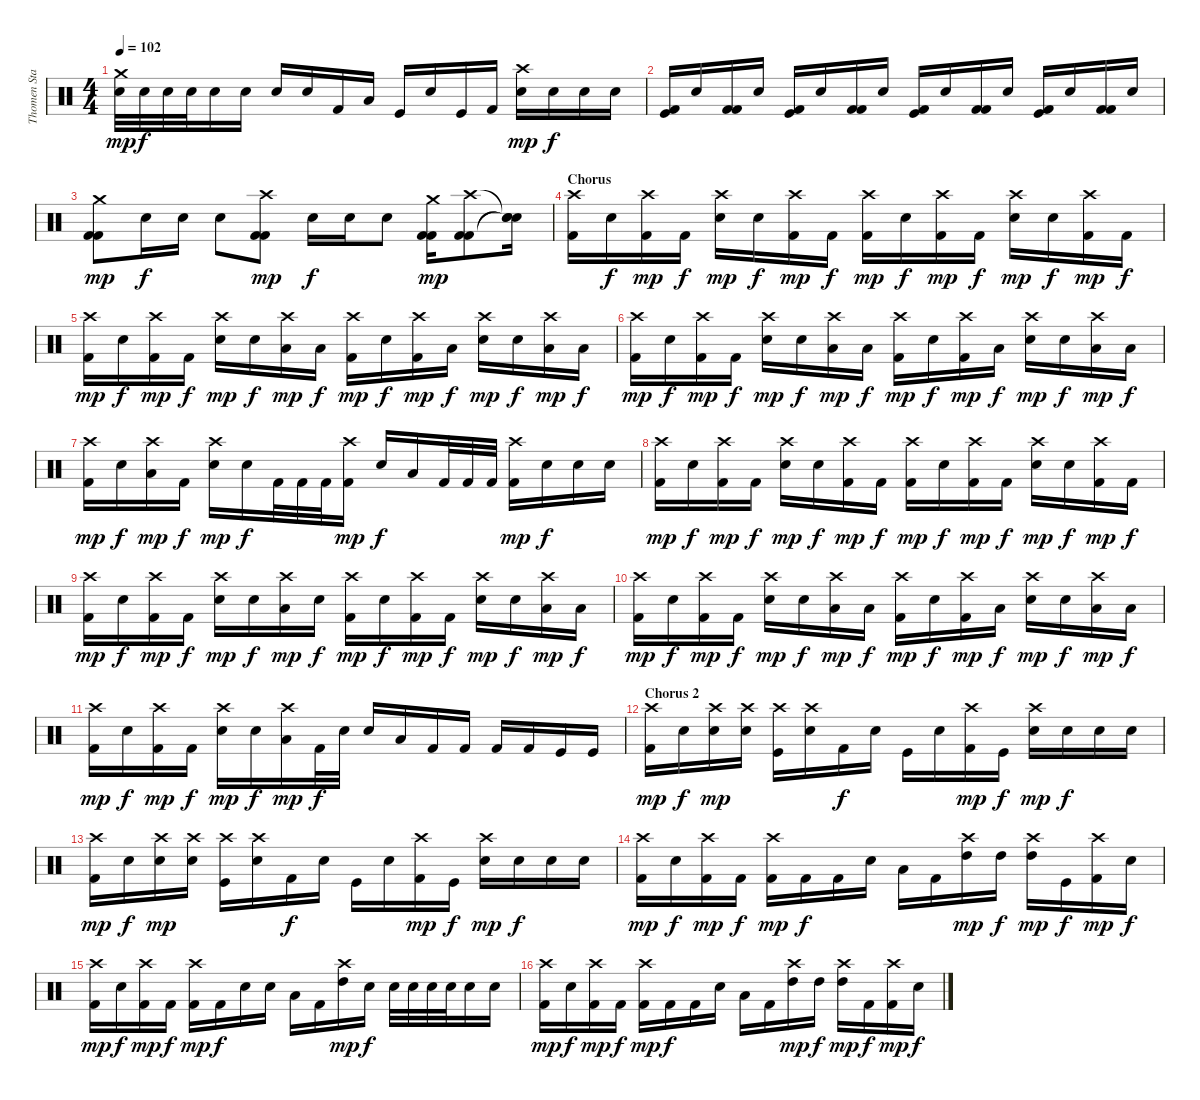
\track ("Thomen Stauch" "Thomen Sta") {instrument percussion}
\staff {score}
\articulation defaults
\ts (4 4)
\tempo 102
\clef neutral
\ks c
("Crash medium (hit)" "Snare (hit) 2").32{dy mp} "Snare (hit) 2".32{dy f} "Snare (hit) 2".32 "Snare (hit) 2".32 "Snare (hit) 2".16 "Snare (hit) 2"{x}.16 "Snare (hit) 2"{x}.16 "Snare (hit)"{x}.16 "Kick (hit) 2".16 "Low Floor Tom (hit)"{x}.16 "Kick (hit)".16 "Snare (hit)"{x}.16 "Kick (hit)".16 "Kick (hit) 2".16 ("Crash high (hit)" "Snare (hit) 2").16{dy mp} "Snare (hit)"{x}.16{dy f} "Snare (hit)"{x}.16 "Snare (hit)"{x}.16 |
("Kick (hit)" "Kick (hit) 2").16 "Snare (hit)"{x}.16 ("Kick (hit) 2" "Kick (hit) 2").16 "Snare (hit)"{x}.16 ("Kick (hit)" "Kick (hit) 2").16 "Snare (hit)"{x}.16 ("Kick (hit) 2" "Kick (hit) 2").16 "Snare (hit)"{x}.16 ("Kick (hit)" "Kick (hit) 2").16 "Snare (hit)"{x}.16 ("Kick (hit) 2" "Kick (hit) 2").16 "Snare (hit)"{x}.16 ("Kick (hit)" "Kick (hit) 2").16 "Snare (hit)"{x}.16 ("Kick (hit) 2" "Kick (hit) 2").16 "Snare (hit)"{x}.16 |
("Crash medium (hit)" "Kick (hit) 2" "Kick (hit) 2").8{dy mp} "Snare (hit) 2".16{dy f} "Snare (hit) 2".16 "Snare (hit) 2".8 ("Crash high (hit)" "Kick (hit) 2" "Kick (hit) 2").8{dy mp} "Snare (hit) 2".16{dy f} "Snare (hit) 2".16 "Snare (hit) 2".8 ("Crash medium (hit)" "Kick (hit) 2" "Kick (hit) 2").16{dy mp} ("Crash high (hit)" "Kick (hit) 2" "Kick (hit) 2").8 ("Snare (hit)"{t} "Snare (hit)"{t} "Snare (hit)"{t}).16 |
\section ("" "Chorus")
("Crash high (hit)" "Kick (hit) 2").16 "Snare (hit)"{x}.16{dy f} ("Crash high (hit)" "Kick (hit) 2").16{dy mp} "Kick (hit) 2".16{dy f} ("Crash high (hit)" "Snare (hit) 2").16{dy mp} "Snare (hit)"{x}.16{dy f} ("Crash high (hit)" "Kick (hit) 2").16{dy mp} "Kick (hit) 2".16{dy f} ("Crash high (hit)" "Kick (hit) 2").16{dy mp} "Snare (hit)"{x}.16{dy f} ("Crash high (hit)" "Kick (hit) 2").16{dy mp} "Kick (hit) 2".16{dy f} ("Crash high (hit)" "Snare (hit) 2").16{dy mp} "Snare (hit)"{x}.16{dy f} ("Crash high (hit)" "Kick (hit) 2").16{dy mp} "Kick (hit) 2".16{dy f} |
("Crash high (hit)" "Kick (hit) 2").16{dy mp} "Snare (hit)"{x}.16{dy f} ("Crash high (hit)" "Kick (hit) 2").16{dy mp} "Kick (hit) 2".16{dy f} ("Crash high (hit)" "Snare (hit) 2").16{dy mp} "Snare (hit)"{x}.16{dy f} ("Crash high (hit)" "Low Floor Tom (hit)"{x}).16{dy mp} "Low Floor Tom (hit)"{x}.16{dy f} ("Crash high (hit)" "Kick (hit) 2").16{dy mp} "Snare (hit)"{x}.16{dy f} ("Crash high (hit)" "Kick (hit) 2").16{dy mp} "Low Floor Tom (hit)"{x}.16{dy f} ("Crash high (hit)" "Snare (hit) 2").16{dy mp} "Snare (hit)"{x}.16{dy f} ("Crash high (hit)" "Low Floor Tom (hit)"{x}).16{dy mp} "Low Floor Tom (hit)"{x}.16{dy f} |
("Crash high (hit)" "Kick (hit) 2").16{dy mp} "Snare (hit)"{x}.16{dy f} ("Crash high (hit)" "Kick (hit) 2").16{dy mp} "Kick (hit) 2".16{dy f} ("Crash high (hit)" "Snare (hit) 2").16{dy mp} "Snare (hit)"{x}.16{dy f} ("Crash high (hit)" "Low Floor Tom (hit)"{x}).16{dy mp} "Low Floor Tom (hit)"{x}.16{dy f} ("Crash high (hit)" "Kick (hit) 2").16{dy mp} "Snare (hit)"{x}.16{dy f} ("Crash high (hit)" "Kick (hit) 2").16{dy mp} "Low Floor Tom (hit)"{x}.16{dy f} ("Crash high (hit)" "Snare (hit) 2").16{dy mp} "Snare (hit)"{x}.16{dy f} ("Crash high (hit)" "Low Floor Tom (hit)"{x}).16{dy mp} "Low Floor Tom (hit)"{x}.16{dy f} |
("Crash high (hit)" "Kick (hit) 2").16{dy mp} "Snare (hit)"{x}.16{dy f} ("Crash high (hit)" "Low Floor Tom (hit)"{x}).16{dy mp} "Kick (hit) 2".16{dy f} ("Crash high (hit)" "Snare (hit) 2").16{dy mp} "Snare (hit)"{x}.16{dy f} "Kick (hit) 2".32 "Kick (hit) 2".32 "Kick (hit) 2".32 ("Crash high (hit)" "Kick (hit) 2").16{dy mp} "Snare (hit)"{x}.16{dy f} "Low Floor Tom (hit)"{x}.16 "Kick (hit) 2".32 "Kick (hit) 2".32 "Kick (hit) 2".32 ("Crash high (hit)" "Kick (hit) 2").16{dy mp} "Snare (hit)"{x}.16{dy f} "Snare (hit)"{x}.16 "Snare (hit)"{x}.16 |
("Crash high (hit)" "Kick (hit) 2").16{dy mp} "Snare (hit)"{x}.16{dy f} ("Crash high (hit)" "Kick (hit) 2").16{dy mp} "Kick (hit) 2".16{dy f} ("Crash high (hit)" "Snare (hit) 2").16{dy mp} "Snare (hit)"{x}.16{dy f} ("Crash high (hit)" "Kick (hit) 2").16{dy mp} "Kick (hit) 2".16{dy f} ("Crash high (hit)" "Kick (hit) 2").16{dy mp} "Snare (hit)"{x}.16{dy f} ("Crash high (hit)" "Kick (hit) 2").16{dy mp} "Kick (hit) 2".16{dy f} ("Crash high (hit)" "Snare (hit) 2").16{dy mp} "Snare (hit)"{x}.16{dy f} ("Crash high (hit)" "Kick (hit) 2").16{dy mp} "Kick (hit) 2".16{dy f} |
("Crash high (hit)" "Kick (hit) 2").16{dy mp} "Snare (hit)"{x}.16{dy f} ("Crash high (hit)" "Kick (hit) 2").16{dy mp} "Kick (hit) 2".16{dy f} ("Crash high (hit)" "Snare (hit) 2").16{dy mp} "Snare (hit)"{x}.16{dy f} ("Crash high (hit)" "Low Floor Tom (hit)"{x}).16{dy mp} "Snare (hit)"{x}.16{dy f} ("Crash high (hit)" "Kick (hit) 2").16{dy mp} "Snare (hit)"{x}.16{dy f} ("Crash high (hit)" "Kick (hit) 2").16{dy mp} "Kick (hit) 2"{x}.16{dy f} ("Crash high (hit)" "Snare (hit) 2").16{dy mp} "Snare (hit)"{x}.16{dy f} ("Crash high (hit)" "Low Floor Tom (hit)"{x}).16{dy mp} "Low Floor Tom (hit)"{x}.16{dy f} |
("Crash high (hit)" "Kick (hit) 2").16{dy mp} "Snare (hit)"{x}.16{dy f} ("Crash high (hit)" "Kick (hit) 2").16{dy mp} "Kick (hit) 2".16{dy f} ("Crash high (hit)" "Snare (hit) 2").16{dy mp} "Snare (hit)"{x}.16{dy f} ("Crash high (hit)" "Low Floor Tom (hit)"{x}).16{dy mp} "Low Floor Tom (hit)"{x}.16{dy f} ("Crash high (hit)" "Kick (hit) 2").16{dy mp} "Snare (hit)"{x}.16{dy f} ("Crash high (hit)" "Kick (hit) 2").16{dy mp} "Low Floor Tom (hit)"{x}.16{dy f} ("Crash high (hit)" "Snare (hit) 2").16{dy mp} "Snare (hit)"{x}.16{dy f} ("Crash high (hit)" "Low Floor Tom (hit)"{x}).16{dy mp} "Low Floor Tom (hit)"{x}.16{dy f} |
("Crash high (hit)" "Kick (hit) 2").16{dy mp} "Snare (hit)"{x}.16{dy f} ("Crash high (hit)" "Kick (hit) 2").16{dy mp} "Kick (hit) 2".16{dy f} ("Crash high (hit)" "Snare (hit) 2").16{dy mp} "Snare (hit)"{x}.16{dy f} ("Crash high (hit)" "Low Floor Tom (hit)"{x}).16{dy mp} "Kick (hit) 2".32{dy f} "Snare (hit) 2".32 "Snare (hit) 2".16 "Low Floor Tom (hit)"{x}.16 "Kick (hit) 2".16 "Kick (hit) 2".16 "Kick (hit) 2".16 "Kick (hit) 2".16 "Kick (hit)".16 "Kick (hit)".16 |
\section ("" "Chorus 2")
("Crash high (hit)" "Kick (hit) 2").16{dy mp} "Snare (hit)"{x}.16{dy f} ("Crash high (hit)" "Snare (hit)"{x}).16{dy mp} ("Crash high (hit)" "Snare (hit)"{x}).16 ("Crash high (hit)" "Kick (hit)"{x}).16 ("Crash high (hit)" "Snare (hit)"{x}).16 "Kick (hit) 2".16{dy f} "Snare (hit)"{x}.16 "Kick (hit)"{x}.16 "Snare (hit)"{x}.16 ("Crash high (hit)" "Kick (hit) 2").16{dy mp} "Kick (hit)"{x}.16{dy f} ("Crash high (hit)" "Snare (hit) 2").16{dy mp} "Snare (hit)"{x}.16{dy f} "Snare (hit)"{x}.16 "Snare (hit)"{x}.16 |
("Crash high (hit)" "Kick (hit) 2").16{dy mp} "Snare (hit)"{x}.16{dy f} ("Crash high (hit)" "Snare (hit) 2").16{dy mp} ("Crash high (hit)" "Snare (hit)"{x}).16 ("Crash high (hit)" "Kick (hit)"{x}).16 ("Crash high (hit)" "Snare (hit)"{x}).16 "Kick (hit) 2".16{dy f} "Snare (hit)"{x}.16 "Kick (hit)"{x}.16 "Snare (hit)"{x}.16 ("Crash high (hit)" "Kick (hit) 2").16{dy mp} "Kick (hit)"{x}.16{dy f} ("Crash high (hit)" "Snare (hit) 2").16{dy mp} "Snare (hit)"{x}.16{dy f} "Snare (hit)"{x}.16 "Snare (hit)"{x}.16 |
("Crash high (hit)" "Kick (hit) 2").16{dy mp} "Snare (hit)"{x}.16{dy f} ("Crash high (hit)" "Kick (hit) 2").16{dy mp} "Kick (hit) 2".16{dy f} ("Crash high (hit)" "Kick (hit) 2").16{dy mp} "Kick (hit) 2".16{dy f} "Kick (hit) 2".16 "Snare (hit)"{x}.16 "Low Floor Tom (hit)"{x}.16 "Kick (hit) 2".16 ("Crash high (hit)" "High Tom (hit)").16{dy mp} "High Tom (hit)"{x}.16{dy f} ("Crash high (hit)" "High Tom (hit)").16{dy mp} "Kick (hit)".16{dy f} ("Crash high (hit)" "Kick (hit) 2").16{dy mp} "Snare (hit)"{x}.16{dy f} |
("Crash high (hit)" "Kick (hit) 2").16{dy mp} "Snare (hit)"{x}.16{dy f} ("Crash high (hit)" "Kick (hit) 2").16{dy mp} "Kick (hit) 2"{x}.16{dy f} ("Crash high (hit)" "Kick (hit) 2").16{dy mp} "Kick (hit) 2"{x}.16{dy f} "Snare (hit) 2".16 "Snare (hit)"{x}.16 "Low Floor Tom (hit)"{x}.16 "Kick (hit) 2".16 ("Crash high (hit)" "High Tom (hit)").16{dy mp} "Snare (hit) 2"{x}.16{dy f} "Snare (hit) 2".32 "Snare (hit) 2".32 "Snare (hit) 2".32 "Snare (hit) 2".32 "Snare (hit) 2".16 "Snare (hit) 2".16 |
("Crash high (hit)" "Kick (hit) 2").16{dy mp} "Snare (hit)"{x}.16{dy f} ("Crash high (hit)" "Kick (hit) 2").16{dy mp} "Kick (hit) 2".16{dy f} ("Crash high (hit)" "Kick (hit) 2").16{dy mp} "Kick (hit) 2".16{dy f} "Kick (hit) 2".16 "Snare (hit)"{x}.16 "Low Floor Tom (hit)"{x}.16 "Kick (hit) 2".16 ("Crash high (hit)" "High Tom (hit)").16{dy mp} "High Tom (hit)"{x}.16{dy f} ("Crash high (hit)" "High Tom (hit)").16{dy mp} "Kick (hit) 2".16{dy f} ("Crash high (hit)" "Kick (hit) 2").16{dy mp} "Snare (hit)"{x}.16{dy f}
